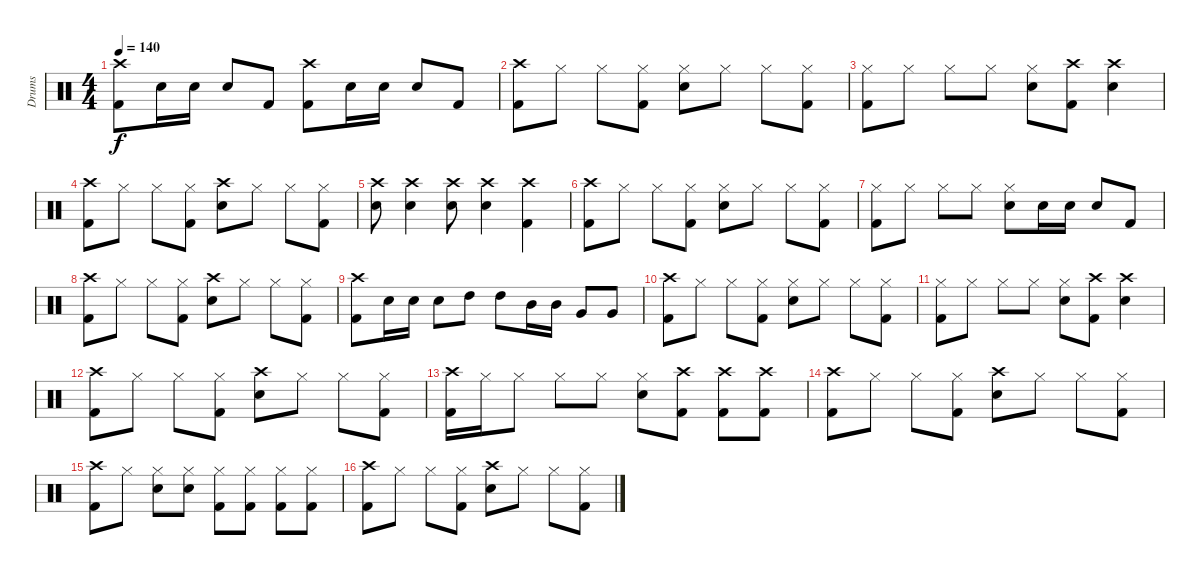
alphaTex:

\track ("Drums" "Drums") {instrument percussion}
\staff {score}
\articulation defaults
\ts (4 4)
\tempo 140
\clef neutral
\ks c
("Crash high (hit)" "Kick (hit) 2").8{dy f} "Snare (hit) 2".16 "Snare (hit) 2".16 "Snare (hit) 2".8 "Kick (hit) 2".8 ("Crash high (hit)" "Kick (hit) 2").8 "Snare (hit) 2".16 "Snare (hit) 2".16 "Snare (hit) 2".8 "Kick (hit) 2".8 |
("Crash high (hit)" "Kick (hit) 2").8 "Hi-Hat (closed)".8 "Hi-Hat (closed)".8 ("Hi-Hat (closed)" "Kick (hit) 2").8 ("Hi-Hat (closed)" "Snare (hit) 2").8 "Hi-Hat (closed)".8 "Hi-Hat (closed)".8 ("Hi-Hat (closed)" "Kick (hit) 2").8 |
("Hi-Hat (closed)" "Kick (hit) 2").8 "Hi-Hat (closed)".8 "Hi-Hat (closed)".8 "Hi-Hat (closed)".8 ("Hi-Hat (closed)" "Snare (hit) 2").8 ("Crash high (hit)" "Kick (hit) 2").8 ("Crash high (hit)" "Snare (hit) 2").4 |
("Crash high (hit)" "Kick (hit) 2").8 "Hi-Hat (closed)".8 "Hi-Hat (closed)".8 ("Hi-Hat (closed)" "Kick (hit) 2").8 ("Crash high (hit)" "Snare (hit) 2").8 "Hi-Hat (closed)".8 "Hi-Hat (closed)".8 ("Hi-Hat (closed)" "Kick (hit) 2").8 |
("Crash high (hit)" "Snare (hit) 2").8 ("Crash high (hit)" "Snare (hit) 2").4 ("Crash high (hit)" "Snare (hit) 2").8 ("Crash high (hit)" "Snare (hit) 2").4 ("Crash high (hit)" "Kick (hit) 2").4 |
("Crash high (hit)" "Kick (hit) 2").8 "Hi-Hat (closed)".8 "Hi-Hat (closed)".8 ("Hi-Hat (closed)" "Kick (hit) 2").8 ("Hi-Hat (closed)" "Snare (hit) 2").8 "Hi-Hat (closed)".8 "Hi-Hat (closed)".8 ("Hi-Hat (closed)" "Kick (hit) 2").8 |
("Hi-Hat (closed)" "Kick (hit) 2").8 "Hi-Hat (closed)".8 "Hi-Hat (closed)".8 "Hi-Hat (closed)".8 ("Hi-Hat (closed)" "Snare (hit) 2").8 "Snare (hit) 2".16 "Snare (hit) 2".16 "Snare (hit) 2".8 "Kick (hit) 2".8 |
("Crash high (hit)" "Kick (hit) 2").8 "Hi-Hat (closed)".8 "Hi-Hat (closed)".8 ("Hi-Hat (closed)" "Kick (hit) 2").8 ("Crash high (hit)" "Snare (hit) 2").8 "Hi-Hat (closed)".8 "Hi-Hat (closed)".8 ("Hi-Hat (closed)" "Kick (hit) 2").8 |
("Crash high (hit)" "Kick (hit) 2").8 "Snare (hit) 2".16 "Snare (hit) 2".16 "Snare (hit) 2".8 "High Tom (hit)".8 "High Tom (hit)".8 "Mid Tom (hit)".16 "Mid Tom (hit)".16 "Very Low Tom (hit)".8 "Very Low Tom (hit)".8 |
("Crash high (hit)" "Kick (hit) 2").8 "Hi-Hat (closed)".8 "Hi-Hat (closed)".8 ("Hi-Hat (closed)" "Kick (hit) 2").8 ("Hi-Hat (closed)" "Snare (hit) 2").8 "Hi-Hat (closed)".8 "Hi-Hat (closed)".8 ("Hi-Hat (closed)" "Kick (hit) 2").8 |
("Hi-Hat (closed)" "Kick (hit) 2").8 "Hi-Hat (closed)".8 "Hi-Hat (closed)".8 "Hi-Hat (closed)".8 ("Hi-Hat (closed)" "Snare (hit) 2").8 ("Crash high (hit)" "Kick (hit) 2").8 ("Crash high (hit)" "Snare (hit) 2").4 |
("Crash high (hit)" "Kick (hit) 2").8 "Hi-Hat (closed)".8 "Hi-Hat (closed)".8 ("Hi-Hat (closed)" "Kick (hit) 2").8 ("Crash high (hit)" "Snare (hit) 2").8 "Hi-Hat (closed)".8 "Hi-Hat (closed)".8 ("Hi-Hat (closed)" "Kick (hit) 2").8 |
("Crash high (hit)" "Kick (hit) 2").16 "Hi-Hat (closed)".16 "Hi-Hat (closed)".8 "Hi-Hat (closed)".8 "Hi-Hat (closed)".8 ("Hi-Hat (closed)" "Snare (hit) 2").8 ("Crash high (hit)" "Kick (hit) 2").8 ("Crash high (hit)" "Kick (hit) 2").8 ("Crash high (hit)" "Kick (hit) 2").8 |
("Crash high (hit)" "Kick (hit) 2").8 "Hi-Hat (closed)".8 "Hi-Hat (closed)".8 ("Hi-Hat (closed)" "Kick (hit) 2").8 ("Crash high (hit)" "Snare (hit) 2").8 "Hi-Hat (closed)".8 "Hi-Hat (closed)".8 ("Hi-Hat (closed)" "Kick (hit) 2").8 |
("Crash high (hit)" "Kick (hit) 2").8 "Hi-Hat (closed)".8 ("Hi-Hat (closed)" "Snare (hit) 2").8 ("Hi-Hat (closed)" "Snare (hit) 2").8 ("Hi-Hat (closed)" "Kick (hit) 2").8 ("Hi-Hat (closed)" "Kick (hit) 2").8 ("Hi-Hat (closed)" "Kick (hit) 2").8 ("Hi-Hat (closed)" "Kick (hit) 2").8 |
("Crash high (hit)" "Kick (hit) 2").8 "Hi-Hat (closed)".8 "Hi-Hat (closed)".8 ("Hi-Hat (closed)" "Kick (hit) 2").8 ("Crash high (hit)" "Snare (hit) 2").8 "Hi-Hat (closed)".8 "Hi-Hat (closed)".8 ("Hi-Hat (closed)" "Kick (hit) 2").8
